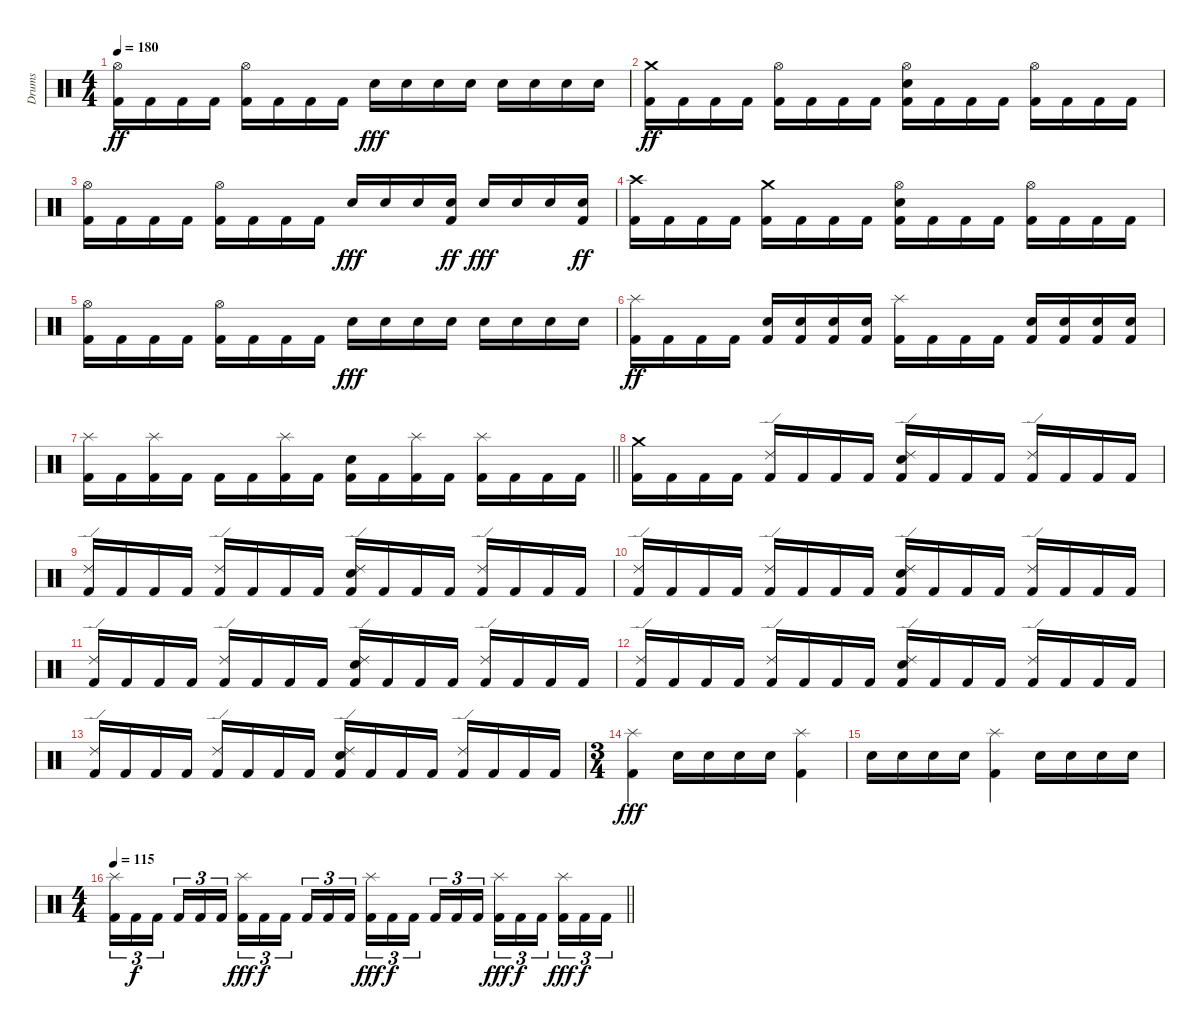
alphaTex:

\track ("Drums" "Drums") {instrument percussion}
\staff {score}
\articulation defaults
\ts (4 4)
\tempo 180
\clef neutral
\ks c
("Hi-Hat (open)" "Kick (hit) 2").16{dy ff} "Kick (hit) 2".16 "Kick (hit) 2".16 "Kick (hit) 2".16 ("Hi-Hat (open)" "Kick (hit) 2").16 "Kick (hit) 2".16 "Kick (hit) 2".16 "Kick (hit) 2".16 "Snare (hit) 2".16{dy fff} "Snare (hit) 2".16 "Snare (hit) 2".16 "Snare (hit) 2".16 "Snare (hit) 2".16 "Snare (hit) 2".16 "Snare (hit) 2".16 "Snare (hit) 2".16 |
("Crash medium (hit)" "Kick (hit) 2").16{dy ff} "Kick (hit) 2".16 "Kick (hit) 2".16 "Kick (hit) 2".16 ("Hi-Hat (open)" "Kick (hit) 2").16 "Kick (hit) 2".16 "Kick (hit) 2".16 "Kick (hit) 2".16 ("Hi-Hat (open)" "Snare (hit) 2" "Kick (hit) 2").16 "Kick (hit) 2".16 "Kick (hit) 2".16 "Kick (hit) 2".16 ("Hi-Hat (open)" "Kick (hit) 2").16 "Kick (hit) 2".16 "Kick (hit) 2".16 "Kick (hit) 2".16 |
("Hi-Hat (open)" "Kick (hit) 2").16 "Kick (hit) 2".16 "Kick (hit) 2".16 "Kick (hit) 2".16 ("Hi-Hat (open)" "Kick (hit) 2").16 "Kick (hit) 2".16 "Kick (hit) 2".16 "Kick (hit) 2".16 "Snare (hit) 2".16{dy fff} "Snare (hit) 2".16 "Snare (hit) 2".16 ("Snare (hit) 2" "Kick (hit) 2").16{dy ff} "Snare (hit) 2".16{dy fff} "Snare (hit) 2".16 "Snare (hit) 2".16 ("Snare (hit) 2" "Kick (hit) 2").16{dy ff} |
("Crash high (hit)" "Kick (hit) 2").16 "Kick (hit) 2".16 "Kick (hit) 2".16 "Kick (hit) 2".16 ("Crash medium (hit)" "Kick (hit) 2").16 "Kick (hit) 2".16 "Kick (hit) 2".16 "Kick (hit) 2".16 ("Hi-Hat (open)" "Snare (hit) 2" "Kick (hit) 2").16 "Kick (hit) 2".16 "Kick (hit) 2".16 "Kick (hit) 2".16 ("Hi-Hat (open)" "Kick (hit) 2").16 "Kick (hit) 2".16 "Kick (hit) 2".16 "Kick (hit) 2".16 |
("Hi-Hat (open)" "Kick (hit) 2").16 "Kick (hit) 2".16 "Kick (hit) 2".16 "Kick (hit) 2".16 ("Hi-Hat (open)" "Kick (hit) 2").16 "Kick (hit) 2".16 "Kick (hit) 2".16 "Kick (hit) 2".16 "Snare (hit) 2".16{dy fff} "Snare (hit) 2".16 "Snare (hit) 2".16 "Snare (hit) 2".16 "Snare (hit) 2".16 "Snare (hit) 2".16 "Snare (hit) 2".16 "Snare (hit) 2".16 |
("Splash (hit)" "Kick (hit) 2").16{dy ff} "Kick (hit) 2".16 "Kick (hit) 2".16 "Kick (hit) 2".16 ("Snare (hit) 2" "Kick (hit) 2").16 ("Snare (hit) 2" "Kick (hit) 2").16 ("Snare (hit) 2" "Kick (hit) 2").16 ("Snare (hit) 2" "Kick (hit) 2").16 ("Splash (hit)" "Kick (hit) 2").16 "Kick (hit) 2".16 "Kick (hit) 2".16 "Kick (hit) 2".16 ("Snare (hit) 2" "Kick (hit) 2").16 ("Snare (hit) 2" "Kick (hit) 2").16 ("Snare (hit) 2" "Kick (hit) 2").16 ("Snare (hit) 2" "Kick (hit) 2").16 |
\barLineRight lightlight
("Splash (hit)" "Kick (hit) 2").16 "Kick (hit) 2".16 ("Splash (hit)" "Kick (hit) 2").16 "Kick (hit) 2".16 "Kick (hit) 2".16 "Kick (hit) 2".16 ("Splash (hit)" "Kick (hit) 2").16 "Kick (hit) 2".16 ("Snare (hit) 2" "Kick (hit) 2").16 "Kick (hit) 2".16 ("Splash (hit)" "Kick (hit) 2").16 "Kick (hit) 2".16 ("Splash (hit)" "Kick (hit) 2").16 "Kick (hit) 2".16 "Kick (hit) 2".16 "Kick (hit) 2".16 |
("Crash medium (hit)" "Kick (hit) 2").16 "Kick (hit) 2".16 "Kick (hit) 2".16 "Kick (hit) 2".16 ("Ride (edge) 2" "Kick (hit) 2").16 "Kick (hit) 2".16 "Kick (hit) 2".16 "Kick (hit) 2".16 ("Ride (edge) 2" "Snare (hit) 2" "Kick (hit) 2").16 "Kick (hit) 2".16 "Kick (hit) 2".16 "Kick (hit) 2".16 ("Ride (edge) 2" "Kick (hit) 2").16 "Kick (hit) 2".16 "Kick (hit) 2".16 "Kick (hit) 2".16 |
("Ride (edge) 2" "Kick (hit) 2").16 "Kick (hit) 2".16 "Kick (hit) 2".16 "Kick (hit) 2".16 ("Ride (edge) 2" "Kick (hit) 2").16 "Kick (hit) 2".16 "Kick (hit) 2".16 "Kick (hit) 2".16 ("Ride (edge) 2" "Snare (hit) 2" "Kick (hit) 2").16 "Kick (hit) 2".16 "Kick (hit) 2".16 "Kick (hit) 2".16 ("Ride (edge) 2" "Kick (hit) 2").16 "Kick (hit) 2".16 "Kick (hit) 2".16 "Kick (hit) 2".16 |
("Ride (edge) 2" "Kick (hit) 2").16 "Kick (hit) 2".16 "Kick (hit) 2".16 "Kick (hit) 2".16 ("Ride (edge) 2" "Kick (hit) 2").16 "Kick (hit) 2".16 "Kick (hit) 2".16 "Kick (hit) 2".16 ("Ride (edge) 2" "Snare (hit) 2" "Kick (hit) 2").16 "Kick (hit) 2".16 "Kick (hit) 2".16 "Kick (hit) 2".16 ("Ride (edge) 2" "Kick (hit) 2").16 "Kick (hit) 2".16 "Kick (hit) 2".16 "Kick (hit) 2".16 |
("Ride (edge) 2" "Kick (hit) 2").16 "Kick (hit) 2".16 "Kick (hit) 2".16 "Kick (hit) 2".16 ("Ride (edge) 2" "Kick (hit) 2").16 "Kick (hit) 2".16 "Kick (hit) 2".16 "Kick (hit) 2".16 ("Ride (edge) 2" "Snare (hit) 2" "Kick (hit) 2").16 "Kick (hit) 2".16 "Kick (hit) 2".16 "Kick (hit) 2".16 ("Ride (edge) 2" "Kick (hit) 2").16 "Kick (hit) 2".16 "Kick (hit) 2".16 "Kick (hit) 2".16 |
("Ride (edge) 2" "Kick (hit) 2").16 "Kick (hit) 2".16 "Kick (hit) 2".16 "Kick (hit) 2".16 ("Ride (edge) 2" "Kick (hit) 2").16 "Kick (hit) 2".16 "Kick (hit) 2".16 "Kick (hit) 2".16 ("Ride (edge) 2" "Snare (hit) 2" "Kick (hit) 2").16 "Kick (hit) 2".16 "Kick (hit) 2".16 "Kick (hit) 2".16 ("Ride (edge) 2" "Kick (hit) 2").16 "Kick (hit) 2".16 "Kick (hit) 2".16 "Kick (hit) 2".16 |
("Ride (edge) 2" "Kick (hit) 2").16 "Kick (hit) 2".16 "Kick (hit) 2".16 "Kick (hit) 2".16 ("Ride (edge) 2" "Kick (hit) 2").16 "Kick (hit) 2".16 "Kick (hit) 2".16 "Kick (hit) 2".16 ("Ride (edge) 2" "Snare (hit) 2" "Kick (hit) 2").16 "Kick (hit) 2".16 "Kick (hit) 2".16 "Kick (hit) 2".16 ("Ride (edge) 2" "Kick (hit) 2").16 "Kick (hit) 2".16 "Kick (hit) 2".16 "Kick (hit) 2".16 |
\ts (3 4)
("Splash (hit)" "Kick (hit) 2").4{dy fff} "Snare (hit) 2".16 "Snare (hit) 2".16 "Snare (hit) 2".16 "Snare (hit) 2".16 ("Splash (hit)" "Kick (hit) 2").4 |
"Snare (hit) 2".16 "Snare (hit) 2".16 "Snare (hit) 2".16 "Snare (hit) 2".16 ("Splash (hit)" "Kick (hit) 2").4 "Snare (hit) 2".16 "Snare (hit) 2".16 "Snare (hit) 2".16 "Snare (hit) 2".16 |
\ts (4 4)
\tempo 115
\barLineRight lightlight
("Splash (hit)" "Kick (hit) 2").16{tu (3 2)} "Kick (hit) 2".16{tu (3 2) dy f} "Kick (hit) 2".16{tu (3 2) beam splitsecondary} "Kick (hit) 2".16{tu (3 2)} "Kick (hit) 2".16{tu (3 2)} "Kick (hit) 2".16{tu (3 2)} ("Splash (hit)" "Kick (hit) 2").16{tu (3 2) dy fff} "Kick (hit) 2".16{tu (3 2) dy f} "Kick (hit) 2".16{tu (3 2) beam splitsecondary} "Kick (hit) 2".16{tu (3 2)} "Kick (hit) 2".16{tu (3 2)} "Kick (hit) 2".16{tu (3 2)} ("Splash (hit)" "Kick (hit) 2").16{tu (3 2) dy fff} "Kick (hit) 2".16{tu (3 2) dy f} "Kick (hit) 2".16{tu (3 2) beam splitsecondary} "Kick (hit) 2".16{tu (3 2)} "Kick (hit) 2".16{tu (3 2)} "Kick (hit) 2".16{tu (3 2)} ("Splash (hit)" "Kick (hit) 2").16{tu (3 2) dy fff} "Kick (hit) 2".16{tu (3 2) dy f} "Kick (hit) 2".16{tu (3 2) beam splitsecondary} ("Splash (hit)" "Kick (hit) 2").16{tu (3 2) dy fff} "Kick (hit) 2".16{tu (3 2) dy f} "Kick (hit) 2".16{tu (3 2)}
